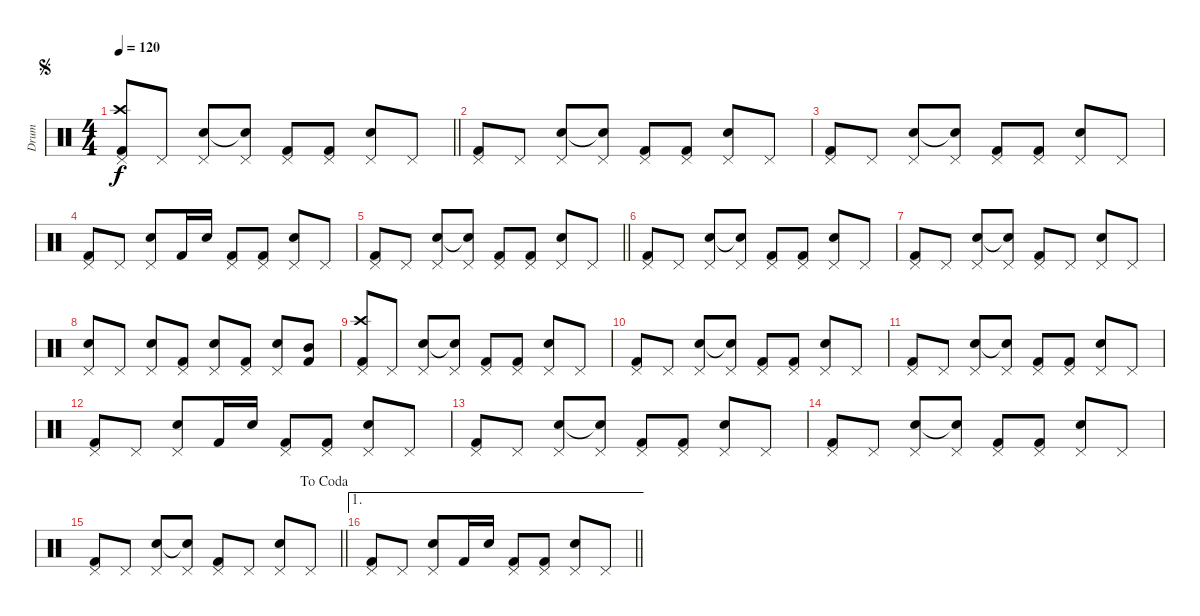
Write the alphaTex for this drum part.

\track ("Drum" "Drum") {instrument percussion}
\staff {score}
\articulation defaults
\ts (4 4)
\jump segno
\tempo 120
\clef neutral
\barLineRight lightlight
\ks c
("Pedal Hi-Hat (hit)" "Crash high (hit)" "Kick (hit) 2").8{dy f} "Pedal Hi-Hat (hit)".8 ("Pedal Hi-Hat (hit)" "Snare (hit) 2").8 ("Pedal Hi-Hat (hit)" "Snare (hit)"{t}).8 ("Pedal Hi-Hat (hit)" "Kick (hit) 2").8 ("Pedal Hi-Hat (hit)" "Kick (hit) 2").8 ("Pedal Hi-Hat (hit)" "Snare (hit) 2").8 "Pedal Hi-Hat (hit)".8 |
("Pedal Hi-Hat (hit)" "Kick (hit) 2").8 "Pedal Hi-Hat (hit)".8 ("Pedal Hi-Hat (hit)" "Snare (hit) 2").8 ("Pedal Hi-Hat (hit)" "Snare (hit)"{t}).8 ("Pedal Hi-Hat (hit)" "Kick (hit) 2").8 ("Pedal Hi-Hat (hit)" "Kick (hit) 2").8 ("Pedal Hi-Hat (hit)" "Snare (hit) 2").8 "Pedal Hi-Hat (hit)".8 |
("Pedal Hi-Hat (hit)" "Kick (hit) 2").8 "Pedal Hi-Hat (hit)".8 ("Pedal Hi-Hat (hit)" "Snare (hit) 2").8 ("Pedal Hi-Hat (hit)" "Snare (hit)"{t}).8 ("Pedal Hi-Hat (hit)" "Kick (hit) 2").8 ("Pedal Hi-Hat (hit)" "Kick (hit) 2").8 ("Pedal Hi-Hat (hit)" "Snare (hit) 2").8 "Pedal Hi-Hat (hit)".8 |
("Pedal Hi-Hat (hit)" "Kick (hit) 2").8 "Pedal Hi-Hat (hit)".8 ("Pedal Hi-Hat (hit)" "Snare (hit) 2").8 "Kick (hit) 2".16 "Snare (hit) 2".16 ("Pedal Hi-Hat (hit)" "Kick (hit) 2").8 ("Pedal Hi-Hat (hit)" "Kick (hit) 2").8 ("Pedal Hi-Hat (hit)" "Snare (hit) 2").8 "Pedal Hi-Hat (hit)".8 |
\barLineRight lightlight
("Pedal Hi-Hat (hit)" "Kick (hit) 2").8 "Pedal Hi-Hat (hit)".8 ("Pedal Hi-Hat (hit)" "Snare (hit) 2").8 ("Pedal Hi-Hat (hit)" "Snare (hit)"{t}).8 ("Pedal Hi-Hat (hit)" "Kick (hit) 2").8 ("Pedal Hi-Hat (hit)" "Kick (hit) 2").8 ("Pedal Hi-Hat (hit)" "Snare (hit) 2").8 "Pedal Hi-Hat (hit)".8 |
("Pedal Hi-Hat (hit)" "Kick (hit) 2").8 "Pedal Hi-Hat (hit)".8 ("Pedal Hi-Hat (hit)" "Snare (hit) 2").8 ("Pedal Hi-Hat (hit)" "Snare (hit)"{t}).8 ("Pedal Hi-Hat (hit)" "Kick (hit) 2").8 ("Pedal Hi-Hat (hit)" "Kick (hit) 2").8 ("Pedal Hi-Hat (hit)" "Snare (hit) 2").8 "Pedal Hi-Hat (hit)".8 |
("Pedal Hi-Hat (hit)" "Kick (hit) 2").8 "Pedal Hi-Hat (hit)".8 ("Pedal Hi-Hat (hit)" "Snare (hit) 2").8 ("Pedal Hi-Hat (hit)" "Snare (hit)"{t}).8 ("Pedal Hi-Hat (hit)" "Kick (hit) 2").8 "Pedal Hi-Hat (hit)".8 ("Pedal Hi-Hat (hit)" "Snare (hit) 2").8 "Pedal Hi-Hat (hit)".8 |
("Pedal Hi-Hat (hit)" "Snare (hit) 2").8 "Pedal Hi-Hat (hit)".8 ("Pedal Hi-Hat (hit)" "Snare (hit) 2").8 ("Pedal Hi-Hat (hit)" "Kick (hit) 2").8 ("Pedal Hi-Hat (hit)" "Snare (hit) 2").8 ("Pedal Hi-Hat (hit)" "Kick (hit) 2").8 ("Pedal Hi-Hat (hit)" "Snare (hit) 2").8 ("Mid Tom (hit)" "Kick (hit) 2").8 |
("Pedal Hi-Hat (hit)" "Crash high (hit)" "Kick (hit) 2").8 "Pedal Hi-Hat (hit)".8 ("Pedal Hi-Hat (hit)" "Snare (hit) 2").8 ("Pedal Hi-Hat (hit)" "Snare (hit)"{t}).8 ("Pedal Hi-Hat (hit)" "Kick (hit) 2").8 ("Pedal Hi-Hat (hit)" "Kick (hit) 2").8 ("Pedal Hi-Hat (hit)" "Snare (hit) 2").8 "Pedal Hi-Hat (hit)".8 |
("Pedal Hi-Hat (hit)" "Kick (hit) 2").8 "Pedal Hi-Hat (hit)".8 ("Pedal Hi-Hat (hit)" "Snare (hit) 2").8 ("Pedal Hi-Hat (hit)" "Snare (hit)"{t}).8 ("Pedal Hi-Hat (hit)" "Kick (hit) 2").8 ("Pedal Hi-Hat (hit)" "Kick (hit) 2").8 ("Pedal Hi-Hat (hit)" "Snare (hit) 2").8 "Pedal Hi-Hat (hit)".8 |
("Pedal Hi-Hat (hit)" "Kick (hit) 2").8 "Pedal Hi-Hat (hit)".8 ("Pedal Hi-Hat (hit)" "Snare (hit) 2").8 ("Pedal Hi-Hat (hit)" "Snare (hit)"{t}).8 ("Pedal Hi-Hat (hit)" "Kick (hit) 2").8 ("Pedal Hi-Hat (hit)" "Kick (hit) 2").8 ("Pedal Hi-Hat (hit)" "Snare (hit) 2").8 "Pedal Hi-Hat (hit)".8 |
("Pedal Hi-Hat (hit)" "Kick (hit) 2").8 "Pedal Hi-Hat (hit)".8 ("Pedal Hi-Hat (hit)" "Snare (hit) 2").8 "Kick (hit) 2".16 "Snare (hit) 2".16 ("Pedal Hi-Hat (hit)" "Kick (hit) 2").8 ("Pedal Hi-Hat (hit)" "Kick (hit) 2").8 ("Pedal Hi-Hat (hit)" "Snare (hit) 2").8 "Pedal Hi-Hat (hit)".8 |
("Pedal Hi-Hat (hit)" "Kick (hit) 2").8 "Pedal Hi-Hat (hit)".8 ("Pedal Hi-Hat (hit)" "Snare (hit) 2").8 ("Pedal Hi-Hat (hit)" "Snare (hit)"{t}).8 ("Pedal Hi-Hat (hit)" "Kick (hit) 2").8 ("Pedal Hi-Hat (hit)" "Kick (hit) 2").8 ("Pedal Hi-Hat (hit)" "Snare (hit) 2").8 "Pedal Hi-Hat (hit)".8 |
("Pedal Hi-Hat (hit)" "Kick (hit) 2").8 "Pedal Hi-Hat (hit)".8 ("Pedal Hi-Hat (hit)" "Snare (hit) 2").8 ("Pedal Hi-Hat (hit)" "Snare (hit)"{t}).8 ("Pedal Hi-Hat (hit)" "Kick (hit) 2").8 ("Pedal Hi-Hat (hit)" "Kick (hit) 2").8 ("Pedal Hi-Hat (hit)" "Snare (hit) 2").8 "Pedal Hi-Hat (hit)".8 |
\jump dacoda
\barLineRight lightlight
("Pedal Hi-Hat (hit)" "Kick (hit) 2").8 "Pedal Hi-Hat (hit)".8 ("Pedal Hi-Hat (hit)" "Snare (hit) 2").8 ("Pedal Hi-Hat (hit)" "Snare (hit)"{t}).8 ("Pedal Hi-Hat (hit)" "Kick (hit) 2").8 "Pedal Hi-Hat (hit)".8 ("Pedal Hi-Hat (hit)" "Snare (hit) 2").8 "Pedal Hi-Hat (hit)".8 |
\ae 1
\barLineRight lightlight
("Pedal Hi-Hat (hit)" "Kick (hit) 2").8 "Pedal Hi-Hat (hit)".8 ("Pedal Hi-Hat (hit)" "Snare (hit) 2").8 "Kick (hit) 2".16 "Snare (hit) 2".16 ("Pedal Hi-Hat (hit)" "Kick (hit) 2").8 ("Pedal Hi-Hat (hit)" "Kick (hit) 2").8 ("Pedal Hi-Hat (hit)" "Snare (hit) 2").8 "Pedal Hi-Hat (hit)".8
